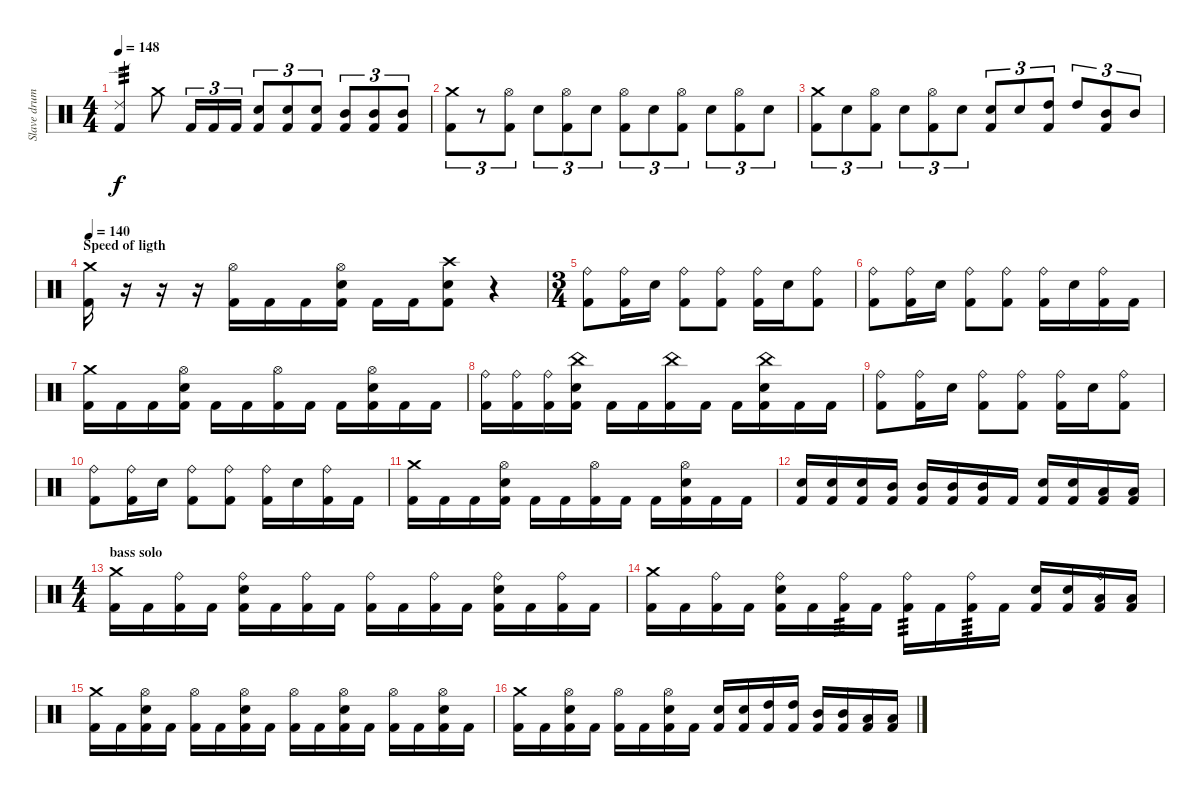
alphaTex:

\track ("Slave drum" "Slave drum") {instrument percussion}
\staff {score}
\articulation defaults
\ts (4 4)
\tempo 148
\clef neutral
\ks c
("Ride (edge) 2" "Kick (hit) 2").4{tp 3 dy f} "Crash medium (hit)".8 "Kick (hit) 2".16{tu (3 2)} "Kick (hit) 2".16{tu (3 2)} "Kick (hit) 2".16{tu (3 2)} ("Electric Snare (hit)" "Kick (hit) 2").8{tu (3 2)} ("Electric Snare (hit)" "Kick (hit) 2").8{tu (3 2)} ("Electric Snare (hit)" "Kick (hit) 2").8{tu (3 2)} ("Mid Tom (hit)" "Kick (hit) 2").8{tu (3 2)} ("Mid Tom (hit)" "Kick (hit) 2").8{tu (3 2)} ("Mid Tom (hit)" "Kick (hit) 2").8{tu (3 2)} |
("Crash medium (hit)" "Kick (hit) 2").8{tu (3 2)} r.8{tu (3 2)} ("Hi-Hat (open)" "Kick (hit) 2").8{tu (3 2)} "Electric Snare (hit)".8{tu (3 2)} ("Hi-Hat (open)" "Kick (hit) 2").8{tu (3 2)} "Electric Snare (hit)".8{tu (3 2)} ("Hi-Hat (open)" "Kick (hit) 2").8{tu (3 2)} "Electric Snare (hit)".8{tu (3 2)} ("Hi-Hat (open)" "Kick (hit) 2").8{tu (3 2)} "Electric Snare (hit)".8{tu (3 2)} ("Hi-Hat (open)" "Kick (hit) 2").8{tu (3 2)} "Electric Snare (hit)".8{tu (3 2)} |
("Crash medium (hit)" "Kick (hit) 2").8{tu (3 2)} "Electric Snare (hit)".8{tu (3 2)} ("Hi-Hat (open)" "Kick (hit) 2").8{tu (3 2)} "Electric Snare (hit)".8{tu (3 2)} ("Hi-Hat (open)" "Kick (hit) 2").8{tu (3 2)} "Electric Snare (hit)".8{tu (3 2)} ("Electric Snare (hit)" "Kick (hit) 2").8{tu (3 2)} "Electric Snare (hit)".8{tu (3 2)} ("High Tom (hit)" "Kick (hit) 2").8{tu (3 2)} "High Tom (hit)".8{tu (3 2)} ("Mid Tom (hit)" "Kick (hit) 2").8{tu (3 2)} "Mid Tom (hit)".8{tu (3 2)} |
\section ("" "Speed of ligth")
\tempo 140
("Crash medium (hit)" "Kick (hit) 2").16 r.16 r.16 r.16 ("Hi-Hat (open)" "Kick (hit) 2").16 "Kick (hit) 2".16 "Kick (hit) 2".16 ("Hi-Hat (open)" "Electric Snare (hit)" "Kick (hit) 2").16 "Kick (hit) 2".16 "Kick (hit) 2".16 ("Crash high (hit)" "Electric Snare (hit)" "Kick (hit) 2").8 r.4 |
\ts (3 4)
("Ride (bell)" "Kick (hit) 2").8 ("Ride (bell)" "Kick (hit) 2").16 "Electric Snare (hit)".16 ("Ride (bell)" "Kick (hit) 2").8 ("Ride (bell)" "Kick (hit) 2").8 ("Ride (bell)" "Kick (hit) 2").16 "Electric Snare (hit)".16 ("Ride (bell)" "Kick (hit) 2").8 |
("Ride (bell)" "Kick (hit) 2").8 ("Ride (bell)" "Kick (hit) 2").16 "Electric Snare (hit)".16 ("Ride (bell)" "Kick (hit) 2").8 ("Ride (bell)" "Kick (hit) 2").8 ("Ride (bell)" "Kick (hit) 2").16 "Electric Snare (hit)".16 ("Ride (bell)" "Kick (hit) 2").16 "Kick (hit) 2".16 |
("Crash medium (hit)" "Kick (hit) 2").16 "Kick (hit) 2".16 "Kick (hit) 2".16 ("Hi-Hat (open)" "Electric Snare (hit)" "Kick (hit) 2").16 "Kick (hit) 2".16 "Kick (hit) 2".16 ("Hi-Hat (open)" "Kick (hit) 2").16 "Kick (hit) 2".16 "Kick (hit) 2".16 ("Hi-Hat (open)" "Electric Snare (hit)" "Kick (hit) 2").16 "Kick (hit) 2".16 "Kick (hit) 2".16 |
("Ride (bell)" "Kick (hit) 2").16 ("Ride (bell)" "Kick (hit) 2").16 ("Ride (bell)" "Kick (hit) 2").16 ("China (hit)" "Electric Snare (hit)" "Kick (hit) 2").16 "Kick (hit) 2".16 "Kick (hit) 2".16 ("China (hit)" "Kick (hit) 2").16 "Kick (hit) 2".16 "Kick (hit) 2".16 ("China (hit)" "Electric Snare (hit)" "Kick (hit) 2").16 "Kick (hit) 2".16 "Kick (hit) 2".16 |
("Ride (bell)" "Kick (hit) 2").8 ("Ride (bell)" "Kick (hit) 2").16 "Electric Snare (hit)".16 ("Ride (bell)" "Kick (hit) 2").8 ("Ride (bell)" "Kick (hit) 2").8 ("Ride (bell)" "Kick (hit) 2").16 "Electric Snare (hit)".16 ("Ride (bell)" "Kick (hit) 2").8 |
("Ride (bell)" "Kick (hit) 2").8 ("Ride (bell)" "Kick (hit) 2").16 "Electric Snare (hit)".16 ("Ride (bell)" "Kick (hit) 2").8 ("Ride (bell)" "Kick (hit) 2").8 ("Ride (bell)" "Kick (hit) 2").16 "Electric Snare (hit)".16 ("Ride (bell)" "Kick (hit) 2").16 "Kick (hit) 2".16 |
("Crash medium (hit)" "Kick (hit) 2").16 "Kick (hit) 2".16 "Kick (hit) 2".16 ("Hi-Hat (open)" "Electric Snare (hit)" "Kick (hit) 2").16 "Kick (hit) 2".16 "Kick (hit) 2".16 ("Hi-Hat (open)" "Kick (hit) 2").16 "Kick (hit) 2".16 "Kick (hit) 2".16 ("Hi-Hat (open)" "Electric Snare (hit)" "Kick (hit) 2").16 "Kick (hit) 2".16 "Kick (hit) 2".16 |
("Electric Snare (hit)" "Kick (hit) 2").16 ("Electric Snare (hit)" "Kick (hit) 2").16 ("Electric Snare (hit)" "Kick (hit) 2").16 ("Mid Tom (hit)" "Kick (hit) 2").16 ("Mid Tom (hit)" "Kick (hit) 2").16 ("Mid Tom (hit)" "Kick (hit) 2").16 ("Mid Tom (hit)" "Kick (hit) 2").16 "Kick (hit) 2".16 ("Electric Snare (hit)" "Kick (hit) 2").16 ("Electric Snare (hit)" "Kick (hit) 2").16 ("Low Tom (hit)" "Kick (hit) 2").16 ("Low Tom (hit)" "Kick (hit) 2").16 |
\ts (4 4)
\section ("" "bass solo")
("Crash medium (hit)" "Kick (hit) 2").16 "Kick (hit) 2".16 ("Ride (bell)" "Kick (hit) 2").16 "Kick (hit) 2".16 ("Ride (bell)" "Electric Snare (hit)" "Kick (hit) 2").16 "Kick (hit) 2".16 ("Ride (bell)" "Kick (hit) 2").16 "Kick (hit) 2".16 ("Ride (bell)" "Kick (hit) 2").16 "Kick (hit) 2".16 ("Ride (bell)" "Kick (hit) 2").16 "Kick (hit) 2".16 ("Ride (bell)" "Electric Snare (hit)" "Kick (hit) 2").16 "Kick (hit) 2".16 ("Ride (bell)" "Kick (hit) 2").16 "Kick (hit) 2".16 |
("Crash medium (hit)" "Kick (hit) 2").16 "Kick (hit) 2".16 ("Ride (bell)" "Kick (hit) 2").16 "Kick (hit) 2".16 ("Ride (bell)" "Electric Snare (hit)" "Kick (hit) 2").16 "Kick (hit) 2".16 ("Ride (bell)" "Kick (hit) 2").16{tp 3} "Kick (hit) 2".16 ("Ride (bell)" "Kick (hit) 2").16{tp 3} "Kick (hit) 2".16 ("Ride (bell)" "Kick (hit) 2").16{tp 3} "Kick (hit) 2".16 ("Electric Snare (hit)" "Kick (hit) 2").16 ("Electric Snare (hit)" "Kick (hit) 2").16 ("Ride (bell)" "Low Tom (hit)" "Kick (hit) 2").16 ("Low Tom (hit)" "Kick (hit) 2").16 |
("Crash medium (hit)" "Kick (hit) 2").16 "Kick (hit) 2".16 ("Hi-Hat (open)" "Electric Snare (hit)" "Kick (hit) 2").16 "Kick (hit) 2".16 ("Hi-Hat (open)" "Kick (hit) 2").16 "Kick (hit) 2".16 ("Hi-Hat (open)" "Electric Snare (hit)" "Kick (hit) 2").16 "Kick (hit) 2".16 ("Hi-Hat (open)" "Kick (hit) 2").16 "Kick (hit) 2".16 ("Hi-Hat (open)" "Electric Snare (hit)" "Kick (hit) 2").16 "Kick (hit) 2".16 ("Hi-Hat (open)" "Kick (hit) 2").16 "Kick (hit) 2".16 ("Hi-Hat (open)" "Electric Snare (hit)" "Kick (hit) 2").16 "Kick (hit) 2".16 |
("Crash medium (hit)" "Kick (hit) 2").16 "Kick (hit) 2".16 ("Hi-Hat (open)" "Electric Snare (hit)" "Kick (hit) 2").16 "Kick (hit) 2".16 ("Hi-Hat (open)" "Kick (hit) 2").16 "Kick (hit) 2".16 ("Hi-Hat (open)" "Electric Snare (hit)" "Kick (hit) 2").16 "Kick (hit) 2".16 ("Electric Snare (hit)" "Kick (hit) 2").16 ("Electric Snare (hit)" "Kick (hit) 2").16 ("High Tom (hit)" "Kick (hit) 2").16 ("High Tom (hit)" "Kick (hit) 2").16 ("Mid Tom (hit)" "Kick (hit) 2").16 ("Mid Tom (hit)" "Kick (hit) 2").16 ("Low Tom (hit)" "Kick (hit) 2").16 ("Low Tom (hit)" "Kick (hit) 2").16
